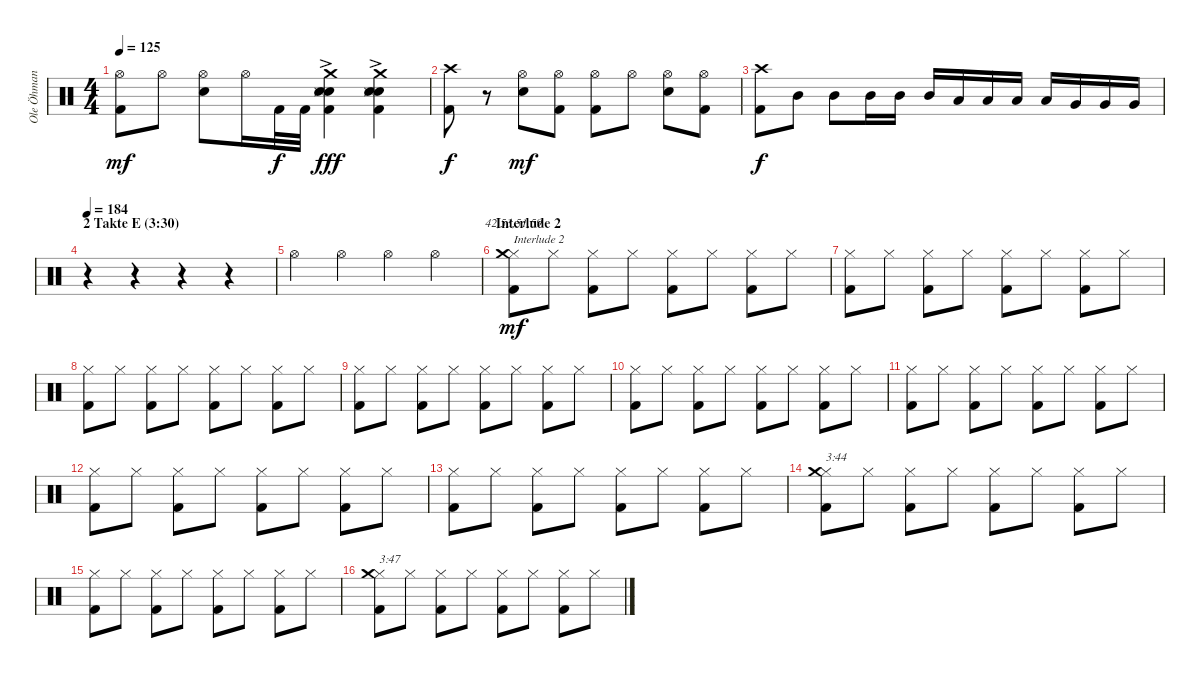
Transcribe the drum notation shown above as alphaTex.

\track ("Ole Öhman" "Ole Öhman") {instrument percussion}
\staff {score}
\articulation defaults
\chord ("42,53,51,59")
\ts (4 4)
\tempo 125
\clef neutral
\ks c
("Kick (hit) 2" "Hi-Hat (open)").8{dy mf} "Hi-Hat (open)".8 ("Electric Snare (hit)" "Hi-Hat (open)").8 "Hi-Hat (open)".16 "Kick (hit) 2".32{dy f} "Kick (hit) 2".32 ("Kick (hit) 2" "Electric Snare (hit)"{ac} "Electric Snare (hit)"{ac} "Snare (side stick) 3" "Crash medium (hit)"{ac}).4{dy fff} ("Kick (hit) 2" "Electric Snare (hit)"{ac} "Electric Snare (hit)"{ac} "Snare (side stick) 3" "Crash medium (hit)"{ac}).4 |
("Kick (hit) 2" "Crash high (hit)").8{dy f} r.8 ("Electric Snare (hit)" "Hi-Hat (open)").8{dy mf} ("Kick (hit) 2" "Hi-Hat (open)").8 ("Kick (hit) 2" "Hi-Hat (open)").8 "Hi-Hat (open)".8 ("Electric Snare (hit)" "Hi-Hat (open)").8 ("Kick (hit) 2" "Hi-Hat (open)").8 |
("Kick (hit) 2" "Crash high (hit)").8{dy f} "Mid Tom (hit)".8 "Mid Tom (hit)".8 "Mid Tom (hit)".16 "Mid Tom (hit)".16 "Mid Tom (hit)".16 "Low Tom (hit)".16 "Low Tom (hit)".16 "Low Tom (hit)".16 "Low Tom (hit)".16 "Very Low Tom (hit)".16 "Very Low Tom (hit)".16 "Very Low Tom (hit)".16 |
\section ("" "2 Takte E (3:30)")
\tempo 184
r.4 r.4 r.4 r.4 |
"Hi-Hat (open)".4 "Hi-Hat (open)".4 "Hi-Hat (open)".4 "Hi-Hat (open)".4 |
\section ("" "Interlude 2")
("Kick (hit) 2" "Hi-Hat (closed)" "Crash medium (hit)").8{ch "42,53,51,59" txt "Interlude 2" dy mf} "Hi-Hat (closed)".8 ("Kick (hit) 2" "Hi-Hat (closed)").8 "Hi-Hat (closed)".8 ("Kick (hit) 2" "Hi-Hat (closed)").8 "Hi-Hat (closed)".8 ("Kick (hit) 2" "Hi-Hat (closed)").8 "Hi-Hat (closed)".8 |
("Kick (hit) 2" "Hi-Hat (closed)").8 "Hi-Hat (closed)".8 ("Kick (hit) 2" "Hi-Hat (closed)").8 "Hi-Hat (closed)".8 ("Kick (hit) 2" "Hi-Hat (closed)").8 "Hi-Hat (closed)".8 ("Kick (hit) 2" "Hi-Hat (closed)").8 "Hi-Hat (closed)".8 |
("Kick (hit) 2" "Hi-Hat (closed)").8 "Hi-Hat (closed)".8 ("Kick (hit) 2" "Hi-Hat (closed)").8 "Hi-Hat (closed)".8 ("Kick (hit) 2" "Hi-Hat (closed)").8 "Hi-Hat (closed)".8 ("Kick (hit) 2" "Hi-Hat (closed)").8 "Hi-Hat (closed)".8 |
("Kick (hit) 2" "Hi-Hat (closed)").8 "Hi-Hat (closed)".8 ("Kick (hit) 2" "Hi-Hat (closed)").8 "Hi-Hat (closed)".8 ("Kick (hit) 2" "Hi-Hat (closed)").8 "Hi-Hat (closed)".8 ("Kick (hit) 2" "Hi-Hat (closed)").8 "Hi-Hat (closed)".8 |
("Kick (hit) 2" "Hi-Hat (closed)").8 "Hi-Hat (closed)".8 ("Kick (hit) 2" "Hi-Hat (closed)").8 "Hi-Hat (closed)".8 ("Kick (hit) 2" "Hi-Hat (closed)").8 "Hi-Hat (closed)".8 ("Kick (hit) 2" "Hi-Hat (closed)").8 "Hi-Hat (closed)".8 |
("Kick (hit) 2" "Hi-Hat (closed)").8 "Hi-Hat (closed)".8 ("Kick (hit) 2" "Hi-Hat (closed)").8 "Hi-Hat (closed)".8 ("Kick (hit) 2" "Hi-Hat (closed)").8 "Hi-Hat (closed)".8 ("Kick (hit) 2" "Hi-Hat (closed)").8 "Hi-Hat (closed)".8 |
("Kick (hit) 2" "Hi-Hat (closed)").8 "Hi-Hat (closed)".8 ("Kick (hit) 2" "Hi-Hat (closed)").8 "Hi-Hat (closed)".8 ("Kick (hit) 2" "Hi-Hat (closed)").8 "Hi-Hat (closed)".8 ("Kick (hit) 2" "Hi-Hat (closed)").8 "Hi-Hat (closed)".8 |
("Kick (hit) 2" "Hi-Hat (closed)").8 "Hi-Hat (closed)".8 ("Kick (hit) 2" "Hi-Hat (closed)").8 "Hi-Hat (closed)".8 ("Kick (hit) 2" "Hi-Hat (closed)").8 "Hi-Hat (closed)".8 ("Kick (hit) 2" "Hi-Hat (closed)").8 "Hi-Hat (closed)".8 |
("Kick (hit) 2" "Hi-Hat (closed)" "Crash medium (hit)").8{txt "3:44"} "Hi-Hat (closed)".8 ("Kick (hit) 2" "Hi-Hat (closed)").8 "Hi-Hat (closed)".8 ("Kick (hit) 2" "Hi-Hat (closed)").8 "Hi-Hat (closed)".8 ("Kick (hit) 2" "Hi-Hat (closed)").8 "Hi-Hat (closed)".8 |
("Kick (hit) 2" "Hi-Hat (closed)").8 "Hi-Hat (closed)".8 ("Kick (hit) 2" "Hi-Hat (closed)").8 "Hi-Hat (closed)".8 ("Kick (hit) 2" "Hi-Hat (closed)").8 "Hi-Hat (closed)".8 ("Kick (hit) 2" "Hi-Hat (closed)").8 "Hi-Hat (closed)".8 |
("Kick (hit) 2" "Hi-Hat (closed)" "Crash medium (hit)").8{txt "3:47"} "Hi-Hat (closed)".8 ("Kick (hit) 2" "Hi-Hat (closed)").8 "Hi-Hat (closed)".8 ("Kick (hit) 2" "Hi-Hat (closed)").8 "Hi-Hat (closed)".8 ("Kick (hit) 2" "Hi-Hat (closed)").8 "Hi-Hat (closed)".8
